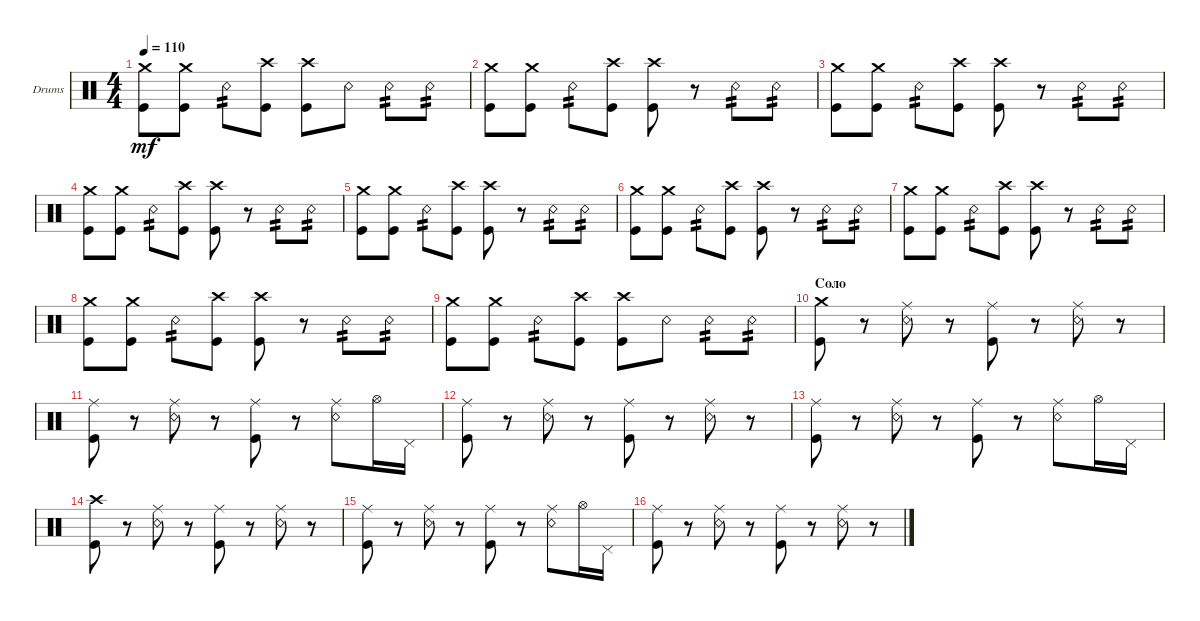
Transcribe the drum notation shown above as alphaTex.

\defaultSystemsLayout 4
\bracketExtendMode groupsimilarinstruments
\firstSystemTrackNameOrientation horizontal
\otherSystemsTrackNameOrientation horizontal
\track ("Drumkit" "Drums") {instrument percussion}
\staff {score}
\articulation defaults
\ts (4 4)
\tempo 110
\clef neutral
\scale
0.333333
\ks c
("Kick (hit)" "Crash medium (hit)").8{dy mf} ("Kick (hit)" "Crash medium (hit)").8 "Snare (rim shot)".8{tp 2} ("Kick (hit)" "Crash high (hit)").8 ("Kick (hit)" "Crash high (hit)").8 "Snare (rim shot)".8 "Snare (rim shot)".8{tp 2} "Snare (rim shot)".8{tp 2} |
\scale
0.333333 ("Kick (hit)" "Crash medium (hit)").8 ("Kick (hit)" "Crash medium (hit)").8 "Snare (rim shot)".8{tp 2} ("Kick (hit)" "Crash high (hit)").8 ("Kick (hit)" "Crash high (hit)").8 r.8 "Snare (rim shot)".8{tp 2} "Snare (rim shot)".8{tp 2} |
\scale
0.333333 ("Kick (hit)" "Crash medium (hit)").8 ("Kick (hit)" "Crash medium (hit)").8 "Snare (rim shot)".8{tp 2} ("Kick (hit)" "Crash high (hit)").8 ("Kick (hit)" "Crash high (hit)").8 r.8 "Snare (rim shot)".8{tp 2} "Snare (rim shot)".8{tp 2} |
\scale
0.333333 ("Kick (hit)" "Crash medium (hit)").8 ("Kick (hit)" "Crash medium (hit)").8 "Snare (rim shot)".8{tp 2} ("Kick (hit)" "Crash high (hit)").8 ("Kick (hit)" "Crash high (hit)").8 r.8 "Snare (rim shot)".8{tp 2} "Snare (rim shot)".8{tp 2} |
\scale
0.333333 ("Kick (hit)" "Crash medium (hit)").8 ("Kick (hit)" "Crash medium (hit)").8 "Snare (rim shot)".8{tp 2} ("Kick (hit)" "Crash high (hit)").8 ("Kick (hit)" "Crash high (hit)").8 r.8 "Snare (rim shot)".8{tp 2} "Snare (rim shot)".8{tp 2} |
\scale
0.333333 ("Kick (hit)" "Crash medium (hit)").8 ("Kick (hit)" "Crash medium (hit)").8 "Snare (rim shot)".8{tp 2} ("Kick (hit)" "Crash high (hit)").8 ("Kick (hit)" "Crash high (hit)").8 r.8 "Snare (rim shot)".8{tp 2} "Snare (rim shot)".8{tp 2} |
\scale
0.333333 ("Kick (hit)" "Crash medium (hit)").8 ("Kick (hit)" "Crash medium (hit)").8 "Snare (rim shot)".8{tp 2} ("Kick (hit)" "Crash high (hit)").8 ("Kick (hit)" "Crash high (hit)").8 r.8 "Snare (rim shot)".8{tp 2} "Snare (rim shot)".8{tp 2} |
\scale
0.333333 ("Kick (hit)" "Crash medium (hit)").8 ("Kick (hit)" "Crash medium (hit)").8 "Snare (rim shot)".8{tp 2} ("Kick (hit)" "Crash high (hit)").8 ("Kick (hit)" "Crash high (hit)").8 r.8 "Snare (rim shot)".8{tp 2} "Snare (rim shot)".8{tp 2} |
\scale
0.333333 ("Kick (hit)" "Crash medium (hit)").8 ("Kick (hit)" "Crash medium (hit)").8 "Snare (rim shot)".8{tp 2} ("Kick (hit)" "Crash high (hit)").8 ("Kick (hit)" "Crash high (hit)").8 "Snare (rim shot)".8 "Snare (rim shot)".8{tp 2} "Snare (rim shot)".8{tp 2} |
\section ("" "Соло")
\scale
0.333333 ("Kick (hit)" "Crash medium (hit)").8 r.8 ("Snare (rim shot)" "Ride (middle)").8 r.8 ("Kick (hit)" "Ride (middle)").8 r.8 ("Snare (rim shot)" "Ride (middle)").8 r.8 |
\scale
0.333333 ("Kick (hit)" "Ride (middle)").8 r.8 ("Snare (rim shot)" "Ride (middle)").8 r.8 ("Kick (hit)" "Ride (middle)").8 r.8 ("Snare (rim shot)" "Ride (middle)").8 "Hi-Hat (open)".16 "Pedal Hi-Hat (hit)".16 |
\scale
0.333333 ("Kick (hit)" "Ride (middle)").8 r.8 ("Snare (rim shot)" "Ride (middle)").8 r.8 ("Kick (hit)" "Ride (middle)").8 r.8 ("Snare (rim shot)" "Ride (middle)").8 r.8 |
\scale
0.333333 ("Kick (hit)" "Ride (middle)").8 r.8 ("Snare (rim shot)" "Ride (middle)").8 r.8 ("Kick (hit)" "Ride (middle)").8 r.8 ("Snare (rim shot)" "Ride (middle)").8 "Hi-Hat (open)".16 "Pedal Hi-Hat (hit)".16 |
\scale
0.333333 ("Kick (hit)" "Crash high (hit)").8 r.8 ("Snare (rim shot)" "Ride (middle)").8 r.8 ("Kick (hit)" "Ride (middle)").8 r.8 ("Snare (rim shot)" "Ride (middle)").8 r.8 |
\scale
0.333333 ("Kick (hit)" "Ride (middle)").8 r.8 ("Snare (rim shot)" "Ride (middle)").8 r.8 ("Kick (hit)" "Ride (middle)").8 r.8 ("Snare (rim shot)" "Ride (middle)").8 "Hi-Hat (open)".16 "Pedal Hi-Hat (hit)".16 |
\scale
0.333333 ("Kick (hit)" "Ride (middle)").8 r.8 ("Snare (rim shot)" "Ride (middle)").8 r.8 ("Kick (hit)" "Ride (middle)").8 r.8 ("Snare (rim shot)" "Ride (middle)").8 r.8
